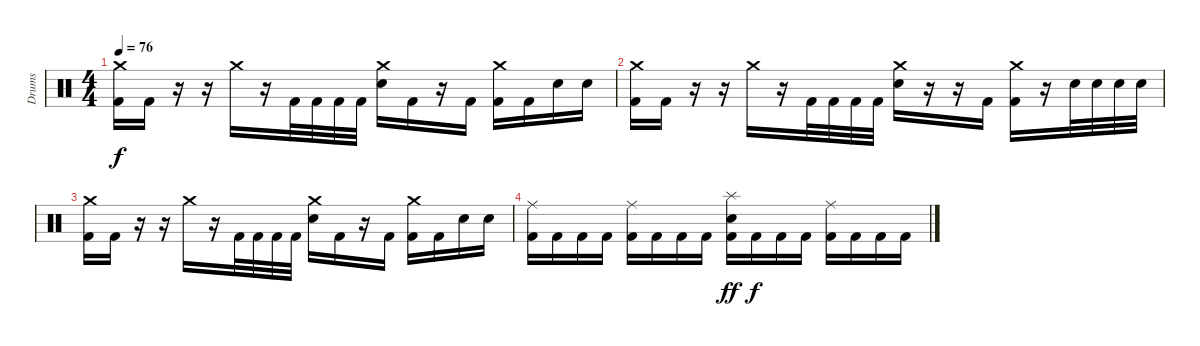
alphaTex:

\track ("Drums" "Drums") {instrument percussion}
\staff {score}
\articulation defaults
\ts (4 4)
\tempo 76
\clef neutral
\ks c
("Kick (hit) 2" "Crash medium (hit)").16{dy f} "Kick (hit) 2".16 r.16 r.16 "Crash medium (hit)".16 r.16 "Kick (hit) 2".32 "Kick (hit) 2".32 "Kick (hit) 2".32 "Kick (hit) 2".32 ("Electric Snare (hit)" "Crash medium (hit)").16 "Kick (hit) 2".16 r.16 "Kick (hit) 2".16 ("Kick (hit) 2" "Crash medium (hit)").16 "Kick (hit) 2".16 "Electric Snare (hit)".16 "Electric Snare (hit)".16 |
("Kick (hit) 2" "Crash medium (hit)").16 "Kick (hit) 2".16 r.16 r.16 "Crash medium (hit)".16 r.16 "Kick (hit) 2".32 "Kick (hit) 2".32 "Kick (hit) 2".32 "Kick (hit) 2".32 ("Electric Snare (hit)" "Crash medium (hit)").16 r.16 r.16 "Kick (hit) 2".16 ("Kick (hit) 2" "Crash medium (hit)").16 r.16 "Electric Snare (hit)".32 "Electric Snare (hit)".32 "Electric Snare (hit)".32 "Electric Snare (hit)".32 |
("Kick (hit) 2" "Crash medium (hit)").16 "Kick (hit) 2".16 r.16 r.16 "Crash medium (hit)".16 r.16 "Kick (hit) 2".32 "Kick (hit) 2".32 "Kick (hit) 2".32 "Kick (hit) 2".32 ("Electric Snare (hit)" "Crash medium (hit)").16 "Kick (hit) 2".16 r.16 "Kick (hit) 2".16 ("Kick (hit) 2" "Crash medium (hit)").16 "Kick (hit) 2".16 "Electric Snare (hit)".16 "Electric Snare (hit)".16 |
("Kick (hit) 2" "Ride (middle)").16 "Kick (hit) 2".16 "Kick (hit) 2".16 "Kick (hit) 2".16 ("Kick (hit) 2" "Ride (middle)").16 "Kick (hit) 2".16 "Kick (hit) 2".16 "Kick (hit) 2".16 ("Kick (hit) 2" "Electric Snare (hit)" "Splash (hit)").16{dy ff} "Kick (hit) 2".16{dy f} "Kick (hit) 2".16 "Kick (hit) 2".16 ("Kick (hit) 2" "Ride (middle)").16 "Kick (hit) 2".16 "Kick (hit) 2".16 "Kick (hit) 2".16
